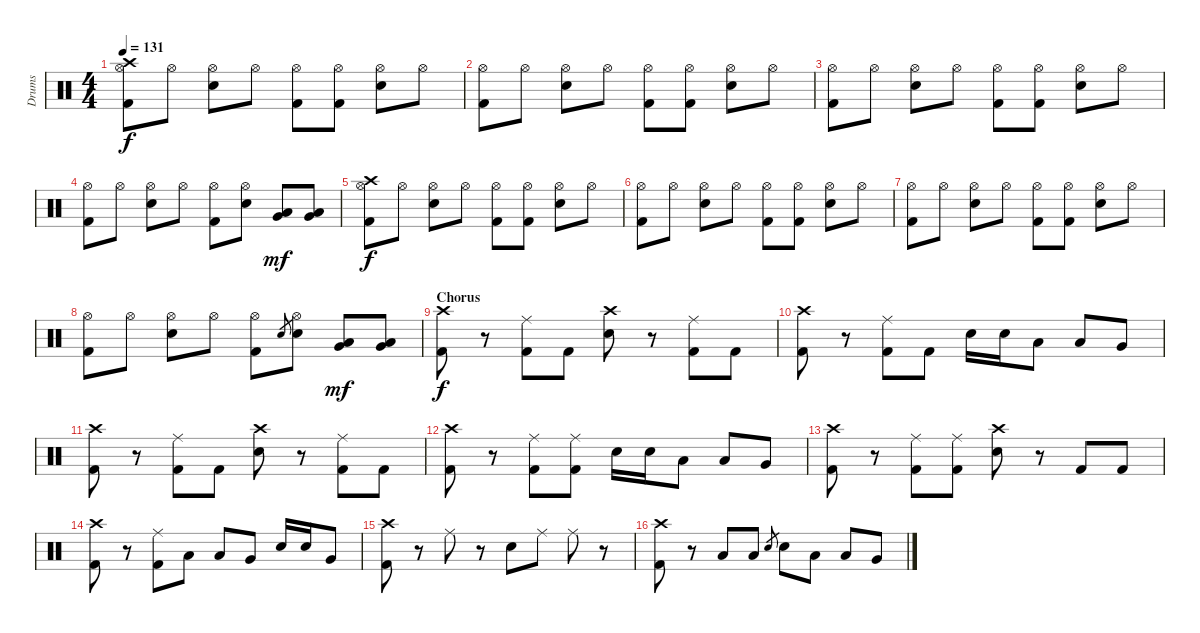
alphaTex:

\track ("Drums" "Drums") {instrument percussion}
\staff {score}
\articulation defaults
\ts (4 4)
\tempo 131
\clef neutral
\ks c
("Kick (hit) 2" "Crash high (hit)" "Hi-Hat (open)").8{dy f} "Hi-Hat (open)".8 ("Electric Snare (hit)" "Hi-Hat (open)").8 "Hi-Hat (open)".8 ("Kick (hit) 2" "Hi-Hat (open)").8 ("Kick (hit) 2" "Hi-Hat (open)").8 ("Electric Snare (hit)" "Hi-Hat (open)").8 "Hi-Hat (open)".8 |
("Kick (hit) 2" "Hi-Hat (open)").8 "Hi-Hat (open)".8 ("Electric Snare (hit)" "Hi-Hat (open)").8 "Hi-Hat (open)".8 ("Kick (hit) 2" "Hi-Hat (open)").8 ("Kick (hit) 2" "Hi-Hat (open)").8 ("Electric Snare (hit)" "Hi-Hat (open)").8 "Hi-Hat (open)".8 |
("Kick (hit) 2" "Hi-Hat (open)").8 "Hi-Hat (open)".8 ("Electric Snare (hit)" "Hi-Hat (open)").8 "Hi-Hat (open)".8 ("Kick (hit) 2" "Hi-Hat (open)").8 ("Kick (hit) 2" "Hi-Hat (open)").8 ("Electric Snare (hit)" "Hi-Hat (open)").8 "Hi-Hat (open)".8 |
("Kick (hit) 2" "Hi-Hat (open)").8 "Hi-Hat (open)".8 ("Electric Snare (hit)" "Hi-Hat (open)").8 "Hi-Hat (open)".8 ("Kick (hit) 2" "Hi-Hat (open)").8 ("Electric Snare (hit)" "Hi-Hat (open)").8 ("Low Tom (hit)" "Very Low Tom (hit)").8{dy mf} ("Low Tom (hit)" "Very Low Tom (hit)").8 |
("Kick (hit) 2" "Crash high (hit)" "Hi-Hat (open)").8{dy f} "Hi-Hat (open)".8 ("Electric Snare (hit)" "Hi-Hat (open)").8 "Hi-Hat (open)".8 ("Kick (hit) 2" "Hi-Hat (open)").8 ("Kick (hit) 2" "Hi-Hat (open)").8 ("Electric Snare (hit)" "Hi-Hat (open)").8 "Hi-Hat (open)".8 |
("Kick (hit) 2" "Hi-Hat (open)").8 "Hi-Hat (open)".8 ("Electric Snare (hit)" "Hi-Hat (open)").8 "Hi-Hat (open)".8 ("Kick (hit) 2" "Hi-Hat (open)").8 ("Kick (hit) 2" "Hi-Hat (open)").8 ("Electric Snare (hit)" "Hi-Hat (open)").8 "Hi-Hat (open)".8 |
("Kick (hit) 2" "Hi-Hat (open)").8 "Hi-Hat (open)".8 ("Electric Snare (hit)" "Hi-Hat (open)").8 "Hi-Hat (open)".8 ("Kick (hit) 2" "Hi-Hat (open)").8 ("Kick (hit) 2" "Hi-Hat (open)").8 ("Electric Snare (hit)" "Hi-Hat (open)").8 "Hi-Hat (open)".8 |
("Kick (hit) 2" "Hi-Hat (open)").8 "Hi-Hat (open)".8 ("Electric Snare (hit)" "Hi-Hat (open)").8 "Hi-Hat (open)".8 ("Kick (hit) 2" "Hi-Hat (open)").8 "Electric Snare (hit)".8{gr} ("Electric Snare (hit)" "Hi-Hat (open)").8 ("Low Tom (hit)" "Very Low Tom (hit)").8{dy mf} ("Low Tom (hit)" "Very Low Tom (hit)").8 |
\section ("" "Chorus")
("Kick (hit) 2" "Crash high (hit)").8{dy f} r.8 ("Kick (hit) 2" "Ride (middle)").8 "Kick (hit) 2".8 ("Electric Snare (hit)" "Crash high (hit)").8 r.8 ("Kick (hit) 2" "Ride (middle)").8 "Kick (hit) 2".8 |
("Kick (hit) 2" "Crash high (hit)").8 r.8 ("Kick (hit) 2" "Ride (middle)").8 "Kick (hit) 2".8 "Electric Snare (hit)".16 "Electric Snare (hit)".16 "Low Tom (hit)".8 "Low Tom (hit)".8 "Very Low Tom (hit)".8 |
("Kick (hit) 2" "Crash high (hit)").8 r.8 ("Kick (hit) 2" "Ride (middle)").8 "Kick (hit) 2".8 ("Electric Snare (hit)" "Crash high (hit)").8 r.8 ("Kick (hit) 2" "Ride (middle)").8 "Kick (hit) 2".8 |
("Kick (hit) 2" "Crash high (hit)").8 r.8 ("Kick (hit) 2" "Ride (middle)").8 ("Kick (hit) 2" "Ride (middle)").8 "Electric Snare (hit)".16 "Electric Snare (hit)".16 "Low Tom (hit)".8 "Low Tom (hit)".8 "Very Low Tom (hit)".8 |
("Kick (hit) 2" "Crash high (hit)").8 r.8 ("Kick (hit) 2" "Ride (middle)").8 ("Kick (hit) 2" "Ride (middle)").8 ("Electric Snare (hit)" "Crash high (hit)").8 r.8 "Kick (hit) 2".8 "Kick (hit) 2".8 |
("Kick (hit) 2" "Crash high (hit)").8 r.8 ("Kick (hit) 2" "Ride (middle)").8 "Low Tom (hit)".8 "Low Tom (hit)".8 "Very Low Tom (hit)".8 "Electric Snare (hit)".16 "Electric Snare (hit)".16 "Very Low Tom (hit)".8 |
("Kick (hit) 2" "Crash high (hit)").8 r.8 "Ride (middle)".8 r.8 "Electric Snare (hit)".8 "Ride (middle)".8 "Ride (middle)".8 r.8 |
("Kick (hit) 2" "Crash high (hit)").8 r.8 "Low Tom (hit)".8 "Low Tom (hit)".8 "Electric Snare (hit)".8{gr} "Electric Snare (hit)".8 "Low Tom (hit)".8 "Low Tom (hit)".8 "Very Low Tom (hit)".8
